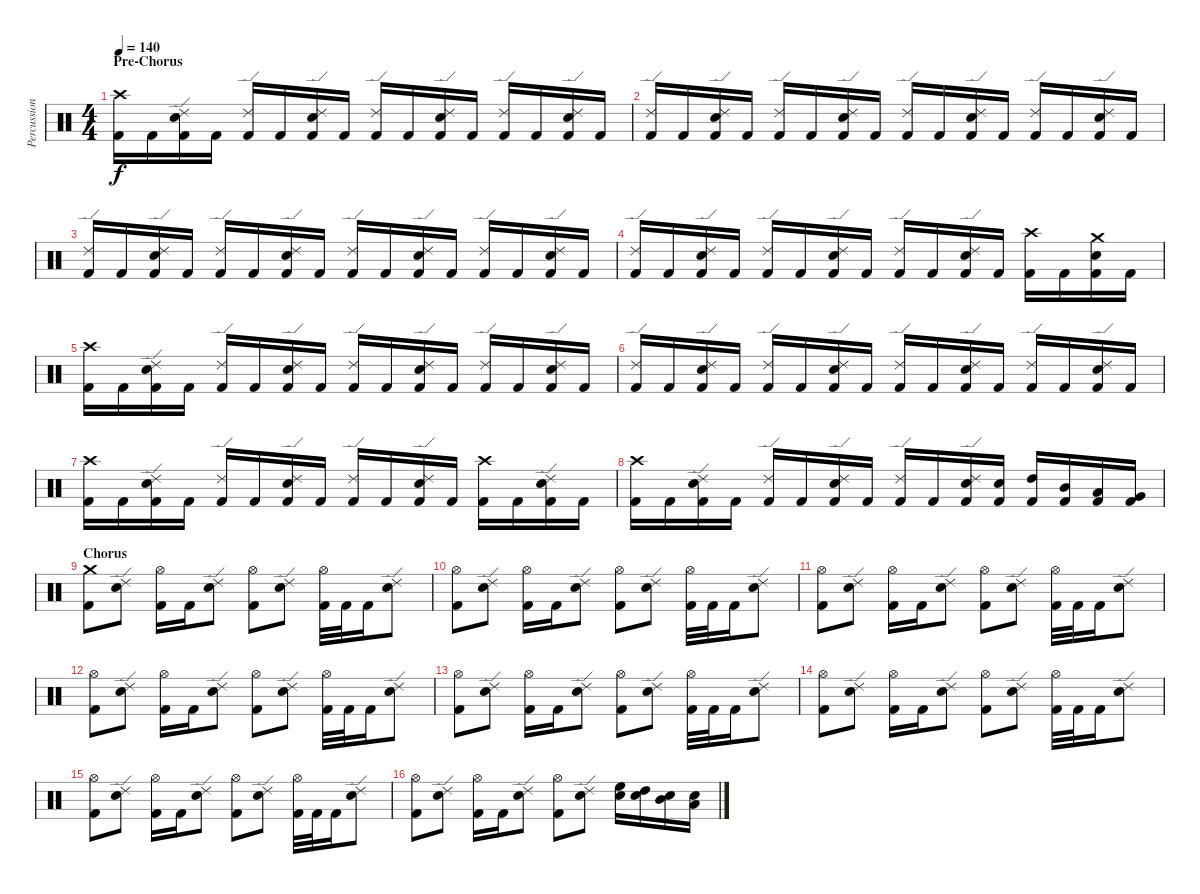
\track ("Percussion" "Percussion") {instrument percussion}
\staff {score}
\articulation defaults
\ts (4 4)
\section ("" "Pre-Chorus")
\tempo 140
\clef neutral
\ks c
("Crash high (hit)" "Kick (hit) 2").16{dy f} "Kick (hit) 2".16 ("Ride (edge) 2" "Electric Snare (hit)" "Kick (hit) 2").16 "Kick (hit) 2".16 ("Ride (edge) 2" "Kick (hit) 2").16 "Kick (hit) 2".16 ("Ride (edge) 2" "Electric Snare (hit)" "Kick (hit) 2").16 "Kick (hit) 2".16 ("Ride (edge) 2" "Kick (hit) 2").16 "Kick (hit) 2".16 ("Ride (edge) 2" "Electric Snare (hit)" "Kick (hit) 2").16 "Kick (hit) 2".16 ("Ride (edge) 2" "Kick (hit) 2").16 "Kick (hit) 2".16 ("Ride (edge) 2" "Electric Snare (hit)" "Kick (hit) 2").16 "Kick (hit) 2".16 |
("Ride (edge) 2" "Kick (hit) 2").16 "Kick (hit) 2".16 ("Ride (edge) 2" "Electric Snare (hit)" "Kick (hit) 2").16 "Kick (hit) 2".16 ("Ride (edge) 2" "Kick (hit) 2").16 "Kick (hit) 2".16 ("Ride (edge) 2" "Electric Snare (hit)" "Kick (hit) 2").16 "Kick (hit) 2".16 ("Ride (edge) 2" "Kick (hit) 2").16 "Kick (hit) 2".16 ("Ride (edge) 2" "Electric Snare (hit)" "Kick (hit) 2").16 "Kick (hit) 2".16 ("Ride (edge) 2" "Kick (hit) 2").16 "Kick (hit) 2".16 ("Ride (edge) 2" "Electric Snare (hit)" "Kick (hit) 2").16 "Kick (hit) 2".16 |
("Ride (edge) 2" "Kick (hit) 2").16 "Kick (hit) 2".16 ("Ride (edge) 2" "Electric Snare (hit)" "Kick (hit) 2").16 "Kick (hit) 2".16 ("Ride (edge) 2" "Kick (hit) 2").16 "Kick (hit) 2".16 ("Ride (edge) 2" "Electric Snare (hit)" "Kick (hit) 2").16 "Kick (hit) 2".16 ("Ride (edge) 2" "Kick (hit) 2").16 "Kick (hit) 2".16 ("Ride (edge) 2" "Electric Snare (hit)" "Kick (hit) 2").16 "Kick (hit) 2".16 ("Ride (edge) 2" "Kick (hit) 2").16 "Kick (hit) 2".16 ("Ride (edge) 2" "Electric Snare (hit)" "Kick (hit) 2").16 "Kick (hit) 2".16 |
("Ride (edge) 2" "Kick (hit) 2").16 "Kick (hit) 2".16 ("Ride (edge) 2" "Electric Snare (hit)" "Kick (hit) 2").16 "Kick (hit) 2".16 ("Ride (edge) 2" "Kick (hit) 2").16 "Kick (hit) 2".16 ("Ride (edge) 2" "Electric Snare (hit)" "Kick (hit) 2").16 "Kick (hit) 2".16 ("Ride (edge) 2" "Kick (hit) 2").16 "Kick (hit) 2".16 ("Ride (edge) 2" "Electric Snare (hit)" "Kick (hit) 2").16 "Kick (hit) 2".16 ("Crash high (hit)" "Kick (hit) 2").16 "Kick (hit) 2".16 ("Crash medium (hit)" "Electric Snare (hit)" "Kick (hit) 2").16 "Kick (hit) 2".16 |
("Crash high (hit)" "Kick (hit) 2").16 "Kick (hit) 2".16 ("Ride (edge) 2" "Electric Snare (hit)" "Kick (hit) 2").16 "Kick (hit) 2".16 ("Ride (edge) 2" "Kick (hit) 2").16 "Kick (hit) 2".16 ("Ride (edge) 2" "Electric Snare (hit)" "Kick (hit) 2").16 "Kick (hit) 2".16 ("Ride (edge) 2" "Kick (hit) 2").16 "Kick (hit) 2".16 ("Ride (edge) 2" "Electric Snare (hit)" "Kick (hit) 2").16 "Kick (hit) 2".16 ("Ride (edge) 2" "Kick (hit) 2").16 "Kick (hit) 2".16 ("Ride (edge) 2" "Electric Snare (hit)" "Kick (hit) 2").16 "Kick (hit) 2".16 |
("Ride (edge) 2" "Kick (hit) 2").16 "Kick (hit) 2".16 ("Ride (edge) 2" "Electric Snare (hit)" "Kick (hit) 2").16 "Kick (hit) 2".16 ("Ride (edge) 2" "Kick (hit) 2").16 "Kick (hit) 2".16 ("Ride (edge) 2" "Electric Snare (hit)" "Kick (hit) 2").16 "Kick (hit) 2".16 ("Ride (edge) 2" "Kick (hit) 2").16 "Kick (hit) 2".16 ("Ride (edge) 2" "Electric Snare (hit)" "Kick (hit) 2").16 "Kick (hit) 2".16 ("Ride (edge) 2" "Kick (hit) 2").16 "Kick (hit) 2".16 ("Ride (edge) 2" "Electric Snare (hit)" "Kick (hit) 2").16 "Kick (hit) 2".16 |
("Crash high (hit)" "Kick (hit) 2").16 "Kick (hit) 2".16 ("Ride (edge) 2" "Electric Snare (hit)" "Kick (hit) 2").16 "Kick (hit) 2".16 ("Ride (edge) 2" "Kick (hit) 2").16 "Kick (hit) 2".16 ("Ride (edge) 2" "Electric Snare (hit)" "Kick (hit) 2").16 "Kick (hit) 2".16 ("Ride (edge) 2" "Kick (hit) 2").16 "Kick (hit) 2".16 ("Ride (edge) 2" "Electric Snare (hit)" "Kick (hit) 2").16 "Kick (hit) 2".16 ("Crash high (hit)" "Kick (hit) 2").16 "Kick (hit) 2".16 ("Ride (edge) 2" "Electric Snare (hit)" "Kick (hit) 2").16 "Kick (hit) 2".16 |
("Crash high (hit)" "Kick (hit) 2").16 "Kick (hit) 2".16 ("Ride (edge) 2" "Electric Snare (hit)" "Kick (hit) 2").16 "Kick (hit) 2".16 ("Ride (edge) 2" "Kick (hit) 2").16 "Kick (hit) 2".16 ("Ride (edge) 2" "Electric Snare (hit)" "Kick (hit) 2").16 "Kick (hit) 2".16 ("Ride (edge) 2" "Kick (hit) 2").16 "Kick (hit) 2".16 ("Ride (edge) 2" "Electric Snare (hit)" "Kick (hit) 2").16 ("Electric Snare (hit)" "Kick (hit) 2").16 ("High Tom (hit)" "Kick (hit) 2").16 ("Mid Tom (hit)" "Kick (hit) 2").16 ("Low Tom (hit)" "Kick (hit) 2").16 ("Very Low Tom (hit)" "Kick (hit) 2").16 |
\section ("" "Chorus")
("Crash medium (hit)" "Kick (hit) 2").8 ("Ride (edge) 2" "Electric Snare (hit)").8 ("Hi-Hat (open)" "Kick (hit) 2").16 "Kick (hit) 2".16 ("Ride (edge) 2" "Electric Snare (hit)").8 ("Hi-Hat (open)" "Kick (hit) 2").8 ("Ride (edge) 2" "Electric Snare (hit)").8 ("Hi-Hat (open)" "Kick (hit) 2").32 "Kick (hit) 2".32 "Kick (hit) 2".16 ("Ride (edge) 2" "Electric Snare (hit)").8 |
("Hi-Hat (open)" "Kick (hit) 2").8 ("Ride (edge) 2" "Electric Snare (hit)").8 ("Hi-Hat (open)" "Kick (hit) 2").16 "Kick (hit) 2".16 ("Ride (edge) 2" "Electric Snare (hit)").8 ("Hi-Hat (open)" "Kick (hit) 2").8 ("Ride (edge) 2" "Electric Snare (hit)").8 ("Hi-Hat (open)" "Kick (hit) 2").32 "Kick (hit) 2".32 "Kick (hit) 2".16 ("Ride (edge) 2" "Electric Snare (hit)").8 |
("Hi-Hat (open)" "Kick (hit) 2").8 ("Ride (edge) 2" "Electric Snare (hit)").8 ("Hi-Hat (open)" "Kick (hit) 2").16 "Kick (hit) 2".16 ("Ride (edge) 2" "Electric Snare (hit)").8 ("Hi-Hat (open)" "Kick (hit) 2").8 ("Ride (edge) 2" "Electric Snare (hit)").8 ("Hi-Hat (open)" "Kick (hit) 2").32 "Kick (hit) 2".32 "Kick (hit) 2".16 ("Ride (edge) 2" "Electric Snare (hit)").8 |
("Hi-Hat (open)" "Kick (hit) 2").8 ("Ride (edge) 2" "Electric Snare (hit)").8 ("Hi-Hat (open)" "Kick (hit) 2").16 "Kick (hit) 2".16 ("Ride (edge) 2" "Electric Snare (hit)").8 ("Hi-Hat (open)" "Kick (hit) 2").8 ("Ride (edge) 2" "Electric Snare (hit)").8 ("Hi-Hat (open)" "Kick (hit) 2").32 "Kick (hit) 2".32 "Kick (hit) 2".16 ("Ride (edge) 2" "Electric Snare (hit)").8 |
("Hi-Hat (open)" "Kick (hit) 2").8 ("Ride (edge) 2" "Electric Snare (hit)").8 ("Hi-Hat (open)" "Kick (hit) 2").16 "Kick (hit) 2".16 ("Ride (edge) 2" "Electric Snare (hit)").8 ("Hi-Hat (open)" "Kick (hit) 2").8 ("Ride (edge) 2" "Electric Snare (hit)").8 ("Hi-Hat (open)" "Kick (hit) 2").32 "Kick (hit) 2".32 "Kick (hit) 2".16 ("Ride (edge) 2" "Electric Snare (hit)").8 |
("Hi-Hat (open)" "Kick (hit) 2").8 ("Ride (edge) 2" "Electric Snare (hit)").8 ("Hi-Hat (open)" "Kick (hit) 2").16 "Kick (hit) 2".16 ("Ride (edge) 2" "Electric Snare (hit)").8 ("Hi-Hat (open)" "Kick (hit) 2").8 ("Ride (edge) 2" "Electric Snare (hit)").8 ("Hi-Hat (open)" "Kick (hit) 2").32 "Kick (hit) 2".32 "Kick (hit) 2".16 ("Ride (edge) 2" "Electric Snare (hit)").8 |
("Hi-Hat (open)" "Kick (hit) 2").8 ("Ride (edge) 2" "Electric Snare (hit)").8 ("Hi-Hat (open)" "Kick (hit) 2").16 "Kick (hit) 2".16 ("Ride (edge) 2" "Electric Snare (hit)").8 ("Hi-Hat (open)" "Kick (hit) 2").8 ("Ride (edge) 2" "Electric Snare (hit)").8 ("Hi-Hat (open)" "Kick (hit) 2").32 "Kick (hit) 2".32 "Kick (hit) 2".16 ("Ride (edge) 2" "Electric Snare (hit)").8 |
("Hi-Hat (open)" "Kick (hit) 2").8 ("Ride (edge) 2" "Electric Snare (hit)").8 ("Hi-Hat (open)" "Kick (hit) 2").16 "Kick (hit) 2".16 ("Ride (edge) 2" "Electric Snare (hit)").8 ("Hi-Hat (open)" "Kick (hit) 2").8 ("Ride (edge) 2" "Electric Snare (hit)").8 ("High Floor Tom (hit)" "Electric Snare (hit)").16 ("High Tom (hit)" "Electric Snare (hit)").16 ("Mid Tom (hit)" "Electric Snare (hit)").16 ("Low Tom (hit)" "Electric Snare (hit)").16
